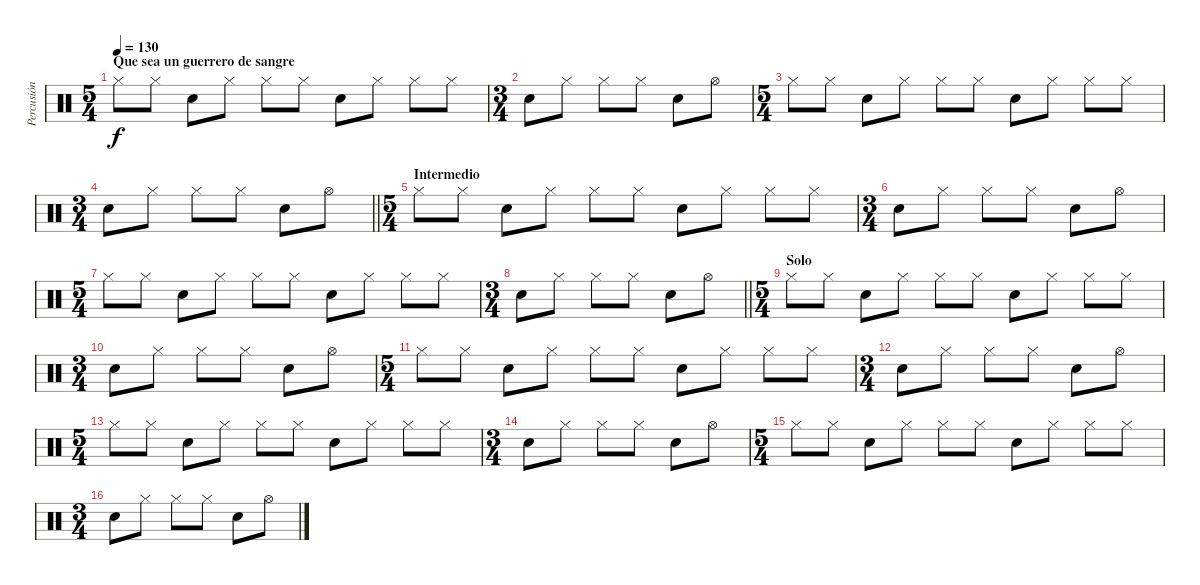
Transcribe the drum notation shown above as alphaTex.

\track ("Percusión" "Percusión") {instrument percussion}
\staff {score}
\articulation defaults
\ts (5 4)
\section ("" "Que sea un guerrero de sangre")
\tempo 130
\clef neutral
\ks c "Hi-Hat (closed)".8{dy f} "Hi-Hat (closed)".8 "Snare (hit) 2".8 "Hi-Hat (closed)".8 "Hi-Hat (closed)".8 "Hi-Hat (closed)".8 "Snare (hit) 2".8 "Hi-Hat (closed)".8 "Hi-Hat (closed)".8 "Hi-Hat (closed)".8
|
\ts (3 4)
"Snare (hit) 2".8 "Hi-Hat (closed)".8 "Hi-Hat (closed)".8 "Hi-Hat (closed)".8 "Snare (hit) 2".8 "Hi-Hat (open)".8 |
\ts (5 4)
"Hi-Hat (closed)".8 "Hi-Hat (closed)".8 "Snare (hit) 2".8 "Hi-Hat (closed)".8 "Hi-Hat (closed)".8 "Hi-Hat (closed)".8 "Snare (hit) 2".8 "Hi-Hat (closed)".8 "Hi-Hat (closed)".8 "Hi-Hat (closed)".8 |
\ts (3 4)
\barLineRight lightlight "Snare (hit) 2".8 "Hi-Hat (closed)".8 "Hi-Hat (closed)".8 "Hi-Hat (closed)".8 "Snare (hit) 2".8 "Hi-Hat (open)".8
|
\ts (5 4)
\section ("" "Intermedio")
"Hi-Hat (closed)".8 "Hi-Hat (closed)".8 "Snare (hit) 2".8 "Hi-Hat (closed)".8 "Hi-Hat (closed)".8 "Hi-Hat (closed)".8 "Snare (hit) 2".8 "Hi-Hat (closed)".8 "Hi-Hat (closed)".8 "Hi-Hat (closed)".8 |
\ts (3 4)
"Snare (hit) 2".8 "Hi-Hat (closed)".8 "Hi-Hat (closed)".8 "Hi-Hat (closed)".8 "Snare (hit) 2".8 "Hi-Hat (open)".8 |
\ts (5 4)
"Hi-Hat (closed)".8 "Hi-Hat (closed)".8 "Snare (hit) 2".8 "Hi-Hat (closed)".8 "Hi-Hat (closed)".8 "Hi-Hat (closed)".8 "Snare (hit) 2".8 "Hi-Hat (closed)".8 "Hi-Hat (closed)".8 "Hi-Hat (closed)".8 |
\ts (3 4)
\barLineRight lightlight "Snare (hit) 2".8 "Hi-Hat (closed)".8 "Hi-Hat (closed)".8 "Hi-Hat (closed)".8 "Snare (hit) 2".8 "Hi-Hat (open)".8
|
\ts (5 4)
\section ("" "Solo")
"Hi-Hat (closed)".8 "Hi-Hat (closed)".8 "Snare (hit) 2".8 "Hi-Hat (closed)".8 "Hi-Hat (closed)".8 "Hi-Hat (closed)".8 "Snare (hit) 2".8 "Hi-Hat (closed)".8 "Hi-Hat (closed)".8 "Hi-Hat (closed)".8 |
\ts (3 4)
"Snare (hit) 2".8 "Hi-Hat (closed)".8 "Hi-Hat (closed)".8 "Hi-Hat (closed)".8 "Snare (hit) 2".8 "Hi-Hat (open)".8 |
\ts (5 4)
"Hi-Hat (closed)".8 "Hi-Hat (closed)".8 "Snare (hit) 2".8 "Hi-Hat (closed)".8 "Hi-Hat (closed)".8 "Hi-Hat (closed)".8 "Snare (hit) 2".8 "Hi-Hat (closed)".8 "Hi-Hat (closed)".8 "Hi-Hat (closed)".8 |
\ts (3 4)
"Snare (hit) 2".8 "Hi-Hat (closed)".8 "Hi-Hat (closed)".8 "Hi-Hat (closed)".8 "Snare (hit) 2".8 "Hi-Hat (open)".8 |
\ts (5 4)
"Hi-Hat (closed)".8 "Hi-Hat (closed)".8 "Snare (hit) 2".8 "Hi-Hat (closed)".8 "Hi-Hat (closed)".8 "Hi-Hat (closed)".8 "Snare (hit) 2".8 "Hi-Hat (closed)".8 "Hi-Hat (closed)".8 "Hi-Hat (closed)".8 |
\ts (3 4)
"Snare (hit) 2".8 "Hi-Hat (closed)".8 "Hi-Hat (closed)".8 "Hi-Hat (closed)".8 "Snare (hit) 2".8 "Hi-Hat (open)".8 |
\ts (5 4)
"Hi-Hat (closed)".8 "Hi-Hat (closed)".8 "Snare (hit) 2".8 "Hi-Hat (closed)".8 "Hi-Hat (closed)".8 "Hi-Hat (closed)".8 "Snare (hit) 2".8 "Hi-Hat (closed)".8 "Hi-Hat (closed)".8 "Hi-Hat (closed)".8 |
\ts (3 4)
"Snare (hit) 2".8 "Hi-Hat (closed)".8 "Hi-Hat (closed)".8 "Hi-Hat (closed)".8 "Snare (hit) 2".8 "Hi-Hat (open)".8
